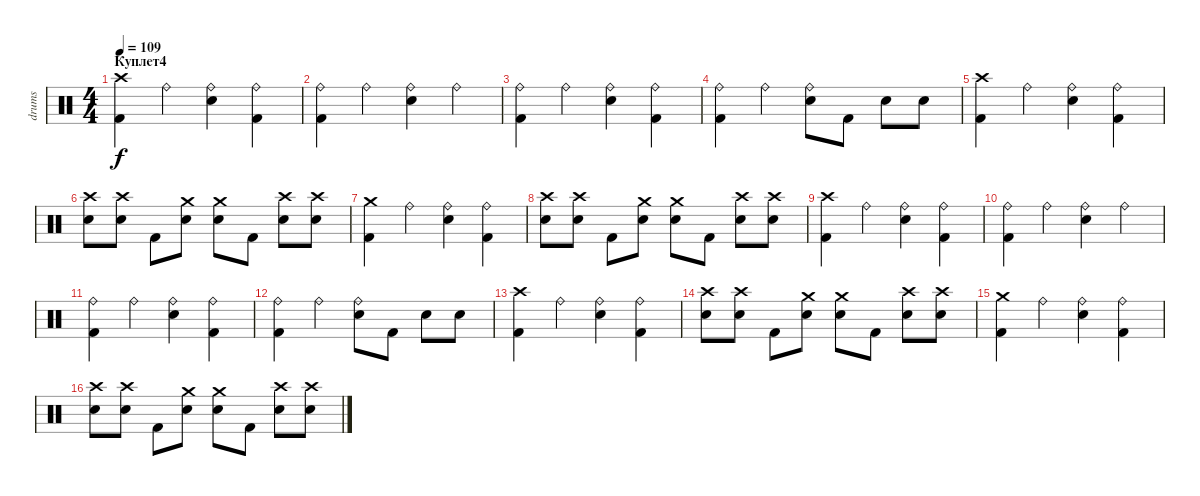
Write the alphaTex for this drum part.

\track ("drums" "drums") {instrument percussion}
\staff {score}
\articulation defaults
\ts (4 4)
\section ("" "Куплет4")
\tempo 109
\clef neutral
\ks c
("Crash high (hit)" "Kick (hit) 2").4{dy f} "Ride (bell)".4 ("Ride (bell)" "Electric Snare (hit)").4 ("Ride (bell)" "Kick (hit) 2").4 |
("Ride (bell)" "Kick (hit) 2").4 "Ride (bell)".4 ("Ride (bell)" "Electric Snare (hit)").4 "Ride (bell)".4 |
("Ride (bell)" "Kick (hit) 2").4 "Ride (bell)".4 ("Ride (bell)" "Electric Snare (hit)").4 ("Ride (bell)" "Kick (hit) 2").4 |
("Ride (bell)" "Kick (hit) 2").4 "Ride (bell)".4 ("Ride (bell)" "Electric Snare (hit)").8 "Kick (hit) 2".8 "Electric Snare (hit)".8 "Electric Snare (hit)".8 |
("Crash high (hit)" "Kick (hit) 2").4 "Ride (bell)".4 ("Ride (bell)" "Electric Snare (hit)").4 ("Kick (hit) 2" "Ride (bell)").4 |
("Crash high (hit)" "Electric Snare (hit)").8 ("Crash high (hit)" "Electric Snare (hit)").8 "Kick (hit) 2".8 ("Crash medium (hit)" "Electric Snare (hit)").8 ("Crash medium (hit)" "Electric Snare (hit)").8 "Kick (hit) 2".8 ("Electric Snare (hit)" "Crash high (hit)").8 ("Crash high (hit)" "Electric Snare (hit)").8 |
("Kick (hit) 2" "Crash medium (hit)").4 "Ride (bell)".4 ("Ride (bell)" "Electric Snare (hit)").4 ("Kick (hit) 2" "Ride (bell)").4 |
("Crash high (hit)" "Electric Snare (hit)").8 ("Crash high (hit)" "Electric Snare (hit)").8 "Kick (hit) 2".8 ("Crash medium (hit)" "Electric Snare (hit)").8 ("Crash medium (hit)" "Electric Snare (hit)").8 "Kick (hit) 2".8 ("Crash high (hit)" "Electric Snare (hit)").8 ("Crash high (hit)" "Electric Snare (hit)").8 |
("Crash high (hit)" "Kick (hit) 2").4 "Ride (bell)".4 ("Ride (bell)" "Electric Snare (hit)").4 ("Ride (bell)" "Kick (hit) 2").4 |
("Ride (bell)" "Kick (hit) 2").4 "Ride (bell)".4 ("Ride (bell)" "Electric Snare (hit)").4 "Ride (bell)".4 |
("Ride (bell)" "Kick (hit) 2").4 "Ride (bell)".4 ("Ride (bell)" "Electric Snare (hit)").4 ("Ride (bell)" "Kick (hit) 2").4 |
("Ride (bell)" "Kick (hit) 2").4 "Ride (bell)".4 ("Ride (bell)" "Electric Snare (hit)").8 "Kick (hit) 2".8 "Electric Snare (hit)".8 "Electric Snare (hit)".8 |
("Crash high (hit)" "Kick (hit) 2").4 "Ride (bell)".4 ("Ride (bell)" "Electric Snare (hit)").4 ("Kick (hit) 2" "Ride (bell)").4 |
("Crash high (hit)" "Electric Snare (hit)").8 ("Crash high (hit)" "Electric Snare (hit)").8 "Kick (hit) 2".8 ("Crash medium (hit)" "Electric Snare (hit)").8 ("Crash medium (hit)" "Electric Snare (hit)").8 "Kick (hit) 2".8 ("Electric Snare (hit)" "Crash high (hit)").8 ("Crash high (hit)" "Electric Snare (hit)").8 |
("Kick (hit) 2" "Crash medium (hit)").4 "Ride (bell)".4 ("Ride (bell)" "Electric Snare (hit)").4 ("Kick (hit) 2" "Ride (bell)").4 |
("Crash high (hit)" "Electric Snare (hit)").8 ("Crash high (hit)" "Electric Snare (hit)").8 "Kick (hit) 2".8 ("Crash medium (hit)" "Electric Snare (hit)").8 ("Crash medium (hit)" "Electric Snare (hit)").8 "Kick (hit) 2".8 ("Crash high (hit)" "Electric Snare (hit)").8 ("Crash high (hit)" "Electric Snare (hit)").8
